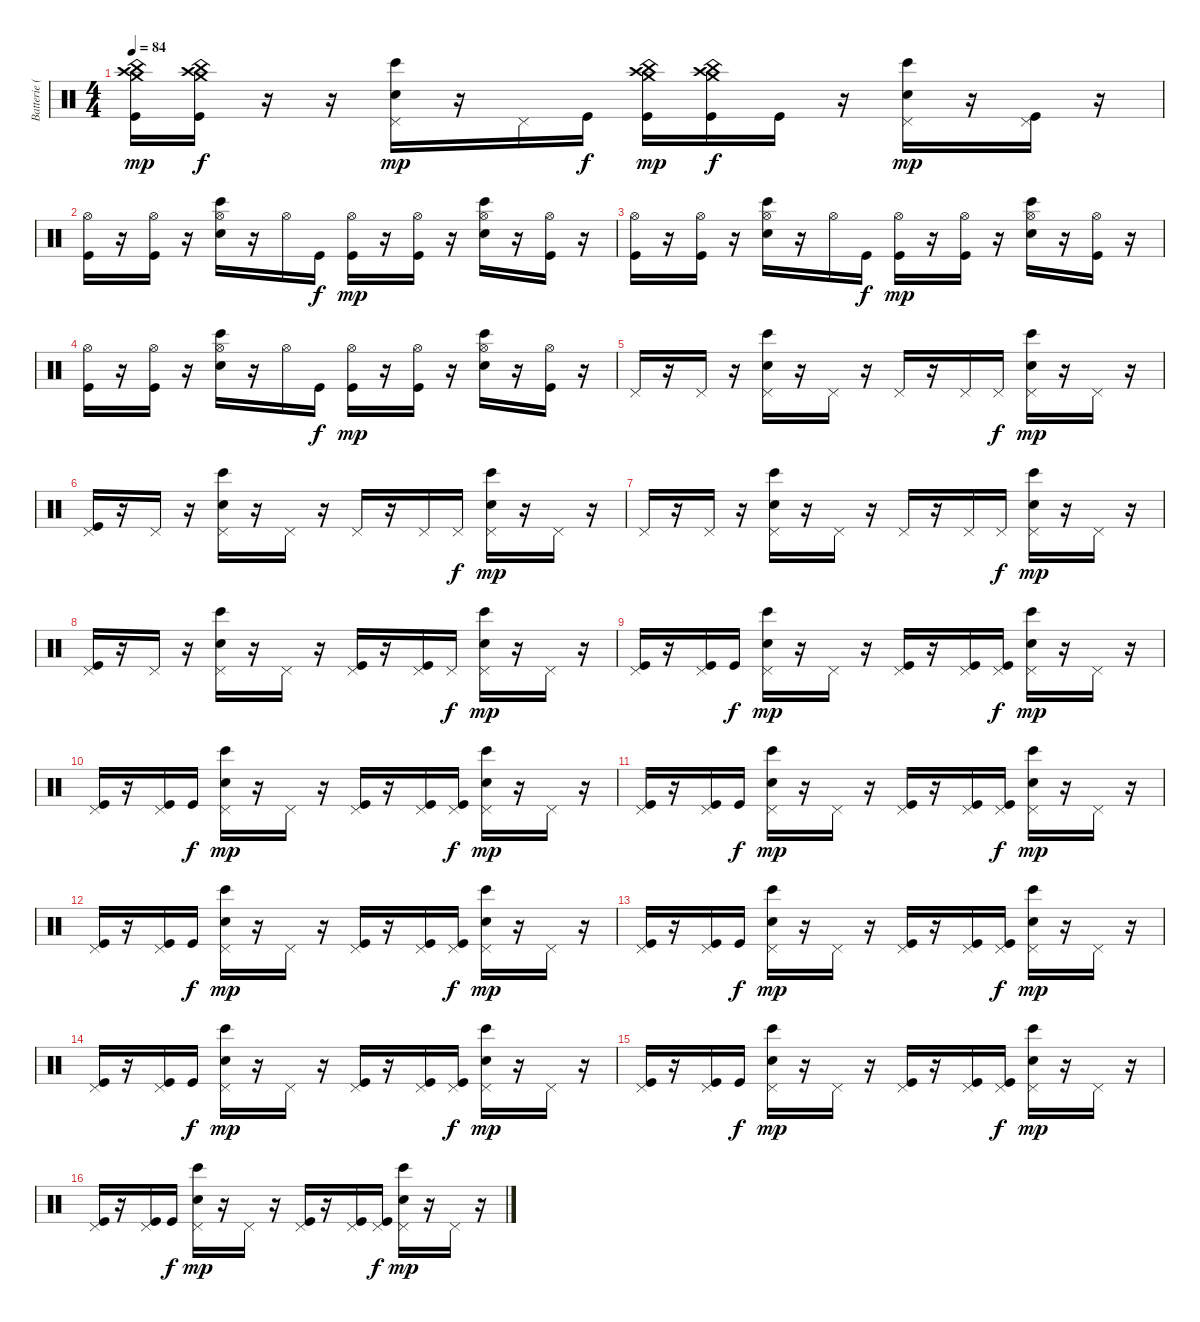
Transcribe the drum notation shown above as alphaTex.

\track ("Batterie (+hand claps)" "Batterie (") {instrument percussion}
\staff {score}
\articulation defaults
\ts (4 4)
\tempo 84
\clef neutral
\ks c
("Crash high (hit)" "China (hit)" "Crash medium (hit)" "Kick (hit)").16{dy mp} ("Crash high (hit)" "China (hit)" "Crash medium (hit)" "Kick (hit)").16{dy f} r.16 r.16 ("Pedal Hi-Hat (hit)" "Hand Clap (hit)" "Bongo High (hit)").16{dy mp} r.16 "Pedal Hi-Hat (hit)".16 "Kick (hit)".16{dy f} ("Crash high (hit)" "China (hit)" "Crash medium (hit)" "Kick (hit)").16{dy mp} ("Crash high (hit)" "China (hit)" "Crash medium (hit)" "Kick (hit)").16{dy f} "Kick (hit)".16 r.16 ("Pedal Hi-Hat (hit)" "Hand Clap (hit)" "Bongo High (hit)").16{dy mp} r.16 ("Pedal Hi-Hat (hit)" "Kick (hit)").16 r.16 |
("Hi-Hat (open)" "Kick (hit)").16 r.16 ("Hi-Hat (open)" "Kick (hit)").16 r.16 ("Hi-Hat (open)" "Hand Clap (hit)" "Bongo High (hit)").16 r.16 "Hi-Hat (open)".16 "Kick (hit)".16{dy f} ("Hi-Hat (open)" "Kick (hit)").16{dy mp} r.16 ("Hi-Hat (open)" "Kick (hit)").16 r.16 ("Hi-Hat (open)" "Hand Clap (hit)" "Bongo High (hit)").16 r.16 ("Hi-Hat (open)" "Kick (hit)").16 r.16 |
("Hi-Hat (open)" "Kick (hit)").16 r.16 ("Hi-Hat (open)" "Kick (hit)").16 r.16 ("Hi-Hat (open)" "Hand Clap (hit)" "Bongo High (hit)").16 r.16 "Hi-Hat (open)".16 "Kick (hit)".16{dy f} ("Hi-Hat (open)" "Kick (hit)").16{dy mp} r.16 ("Hi-Hat (open)" "Kick (hit)").16 r.16 ("Hi-Hat (open)" "Hand Clap (hit)" "Bongo High (hit)").16 r.16 ("Hi-Hat (open)" "Kick (hit)").16 r.16 |
("Hi-Hat (open)" "Kick (hit)").16 r.16 ("Hi-Hat (open)" "Kick (hit)").16 r.16 ("Hi-Hat (open)" "Hand Clap (hit)" "Bongo High (hit)").16 r.16 "Hi-Hat (open)".16 "Kick (hit)".16{dy f} ("Hi-Hat (open)" "Kick (hit)").16{dy mp} r.16 ("Hi-Hat (open)" "Kick (hit)").16 r.16 ("Hi-Hat (open)" "Hand Clap (hit)" "Bongo High (hit)").16 r.16 ("Hi-Hat (open)" "Kick (hit)").16 r.16 |
"Pedal Hi-Hat (hit)".16 r.16 "Pedal Hi-Hat (hit)".16 r.16 ("Pedal Hi-Hat (hit)" "Hand Clap (hit)" "Bongo High (hit)").16 r.16 "Pedal Hi-Hat (hit)".16 r.16 "Pedal Hi-Hat (hit)".16 r.16 "Pedal Hi-Hat (hit)".16 "Pedal Hi-Hat (hit)".16{dy f} ("Pedal Hi-Hat (hit)" "Hand Clap (hit)" "Bongo High (hit)").16{dy mp} r.16 "Pedal Hi-Hat (hit)".16 r.16 |
("Pedal Hi-Hat (hit)" "Kick (hit)").16 r.16 "Pedal Hi-Hat (hit)".16 r.16 ("Pedal Hi-Hat (hit)" "Hand Clap (hit)" "Bongo High (hit)").16 r.16 "Pedal Hi-Hat (hit)".16 r.16 "Pedal Hi-Hat (hit)".16 r.16 "Pedal Hi-Hat (hit)".16 "Pedal Hi-Hat (hit)".16{dy f} ("Pedal Hi-Hat (hit)" "Hand Clap (hit)" "Bongo High (hit)").16{dy mp} r.16 "Pedal Hi-Hat (hit)".16 r.16 |
"Pedal Hi-Hat (hit)".16 r.16 "Pedal Hi-Hat (hit)".16 r.16 ("Pedal Hi-Hat (hit)" "Hand Clap (hit)" "Bongo High (hit)").16 r.16 "Pedal Hi-Hat (hit)".16 r.16 "Pedal Hi-Hat (hit)".16 r.16 "Pedal Hi-Hat (hit)".16 "Pedal Hi-Hat (hit)".16{dy f} ("Pedal Hi-Hat (hit)" "Hand Clap (hit)" "Bongo High (hit)").16{dy mp} r.16 "Pedal Hi-Hat (hit)".16 r.16 |
("Pedal Hi-Hat (hit)" "Kick (hit)").16 r.16 "Pedal Hi-Hat (hit)".16 r.16 ("Pedal Hi-Hat (hit)" "Hand Clap (hit)" "Bongo High (hit)").16 r.16 "Pedal Hi-Hat (hit)".16 r.16 ("Pedal Hi-Hat (hit)" "Kick (hit)").16 r.16 ("Pedal Hi-Hat (hit)" "Kick (hit)").16 "Pedal Hi-Hat (hit)".16{dy f} ("Pedal Hi-Hat (hit)" "Hand Clap (hit)" "Bongo High (hit)").16{dy mp} r.16 "Pedal Hi-Hat (hit)".16 r.16 |
("Pedal Hi-Hat (hit)" "Kick (hit)").16 r.16 ("Pedal Hi-Hat (hit)" "Kick (hit)").16 "Kick (hit)".16{dy f} ("Pedal Hi-Hat (hit)" "Hand Clap (hit)" "Bongo High (hit)").16{dy mp} r.16 "Pedal Hi-Hat (hit)".16 r.16 ("Pedal Hi-Hat (hit)" "Kick (hit)").16 r.16 ("Pedal Hi-Hat (hit)" "Kick (hit)").16 ("Pedal Hi-Hat (hit)" "Kick (hit)").16{dy f} ("Pedal Hi-Hat (hit)" "Hand Clap (hit)" "Bongo High (hit)").16{dy mp} r.16 "Pedal Hi-Hat (hit)".16 r.16 |
("Pedal Hi-Hat (hit)" "Kick (hit)").16 r.16 ("Pedal Hi-Hat (hit)" "Kick (hit)").16 "Kick (hit)".16{dy f} ("Pedal Hi-Hat (hit)" "Hand Clap (hit)" "Bongo High (hit)").16{dy mp} r.16 "Pedal Hi-Hat (hit)".16 r.16 ("Pedal Hi-Hat (hit)" "Kick (hit)").16 r.16 ("Pedal Hi-Hat (hit)" "Kick (hit)").16 ("Pedal Hi-Hat (hit)" "Kick (hit)").16{dy f} ("Pedal Hi-Hat (hit)" "Hand Clap (hit)" "Bongo High (hit)").16{dy mp} r.16 "Pedal Hi-Hat (hit)".16 r.16 |
("Pedal Hi-Hat (hit)" "Kick (hit)").16 r.16 ("Pedal Hi-Hat (hit)" "Kick (hit)").16 "Kick (hit)".16{dy f} ("Pedal Hi-Hat (hit)" "Hand Clap (hit)" "Bongo High (hit)").16{dy mp} r.16 "Pedal Hi-Hat (hit)".16 r.16 ("Pedal Hi-Hat (hit)" "Kick (hit)").16 r.16 ("Pedal Hi-Hat (hit)" "Kick (hit)").16 ("Pedal Hi-Hat (hit)" "Kick (hit)").16{dy f} ("Pedal Hi-Hat (hit)" "Hand Clap (hit)" "Bongo High (hit)").16{dy mp} r.16 "Pedal Hi-Hat (hit)".16 r.16 |
("Pedal Hi-Hat (hit)" "Kick (hit)").16 r.16 ("Pedal Hi-Hat (hit)" "Kick (hit)").16 "Kick (hit)".16{dy f} ("Pedal Hi-Hat (hit)" "Hand Clap (hit)" "Bongo High (hit)").16{dy mp} r.16 "Pedal Hi-Hat (hit)".16 r.16 ("Pedal Hi-Hat (hit)" "Kick (hit)").16 r.16 ("Pedal Hi-Hat (hit)" "Kick (hit)").16 ("Pedal Hi-Hat (hit)" "Kick (hit)").16{dy f} ("Pedal Hi-Hat (hit)" "Hand Clap (hit)" "Bongo High (hit)").16{dy mp} r.16 "Pedal Hi-Hat (hit)".16 r.16 |
("Pedal Hi-Hat (hit)" "Kick (hit)").16 r.16 ("Pedal Hi-Hat (hit)" "Kick (hit)").16 "Kick (hit)".16{dy f} ("Pedal Hi-Hat (hit)" "Hand Clap (hit)" "Bongo High (hit)").16{dy mp} r.16 "Pedal Hi-Hat (hit)".16 r.16 ("Pedal Hi-Hat (hit)" "Kick (hit)").16 r.16 ("Pedal Hi-Hat (hit)" "Kick (hit)").16 ("Pedal Hi-Hat (hit)" "Kick (hit)").16{dy f} ("Pedal Hi-Hat (hit)" "Hand Clap (hit)" "Bongo High (hit)").16{dy mp} r.16 "Pedal Hi-Hat (hit)".16 r.16 |
("Pedal Hi-Hat (hit)" "Kick (hit)").16 r.16 ("Pedal Hi-Hat (hit)" "Kick (hit)").16 "Kick (hit)".16{dy f} ("Pedal Hi-Hat (hit)" "Hand Clap (hit)" "Bongo High (hit)").16{dy mp} r.16 "Pedal Hi-Hat (hit)".16 r.16 ("Pedal Hi-Hat (hit)" "Kick (hit)").16 r.16 ("Pedal Hi-Hat (hit)" "Kick (hit)").16 ("Pedal Hi-Hat (hit)" "Kick (hit)").16{dy f} ("Pedal Hi-Hat (hit)" "Hand Clap (hit)" "Bongo High (hit)").16{dy mp} r.16 "Pedal Hi-Hat (hit)".16 r.16 |
("Pedal Hi-Hat (hit)" "Kick (hit)").16 r.16 ("Pedal Hi-Hat (hit)" "Kick (hit)").16 "Kick (hit)".16{dy f} ("Pedal Hi-Hat (hit)" "Hand Clap (hit)" "Bongo High (hit)").16{dy mp} r.16 "Pedal Hi-Hat (hit)".16 r.16 ("Pedal Hi-Hat (hit)" "Kick (hit)").16 r.16 ("Pedal Hi-Hat (hit)" "Kick (hit)").16 ("Pedal Hi-Hat (hit)" "Kick (hit)").16{dy f} ("Pedal Hi-Hat (hit)" "Hand Clap (hit)" "Bongo High (hit)").16{dy mp} r.16 "Pedal Hi-Hat (hit)".16 r.16 |
("Pedal Hi-Hat (hit)" "Kick (hit)").16 r.16 ("Pedal Hi-Hat (hit)" "Kick (hit)").16 "Kick (hit)".16{dy f} ("Pedal Hi-Hat (hit)" "Hand Clap (hit)" "Bongo High (hit)").16{dy mp} r.16 "Pedal Hi-Hat (hit)".16 r.16 ("Pedal Hi-Hat (hit)" "Kick (hit)").16 r.16 ("Pedal Hi-Hat (hit)" "Kick (hit)").16 ("Pedal Hi-Hat (hit)" "Kick (hit)").16{dy f} ("Pedal Hi-Hat (hit)" "Hand Clap (hit)" "Bongo High (hit)").16{dy mp} r.16 "Pedal Hi-Hat (hit)".16 r.16
